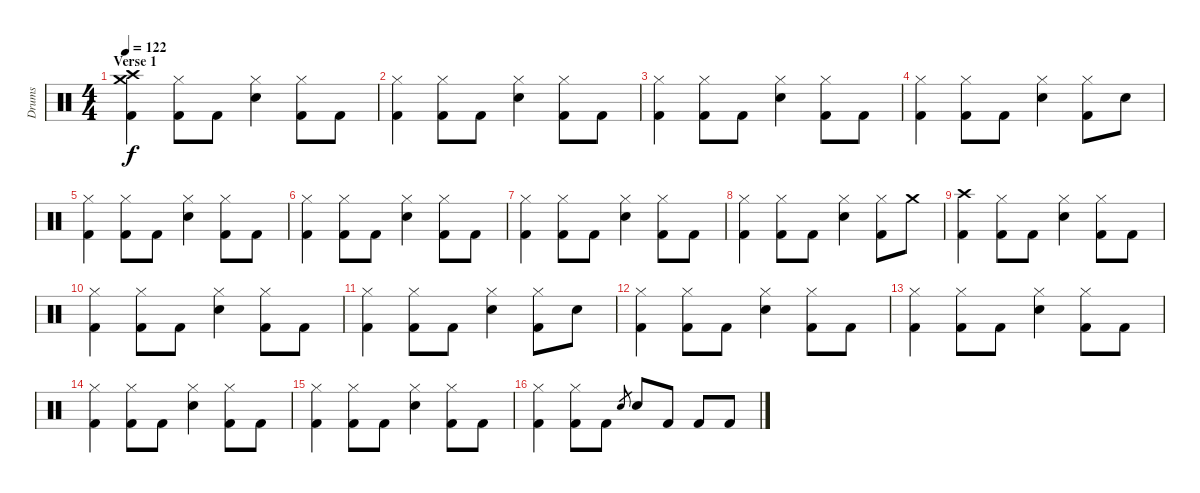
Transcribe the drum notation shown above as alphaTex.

\track ("Drums" "Drums") {instrument percussion}
\staff {score}
\articulation defaults
\ts (4 4)
\section ("" "Verse 1")
\tempo 122
\clef neutral
\ks c
("Crash high (hit)" "Crash medium (hit)" "Kick (hit) 2").4{dy f} ("Hi-Hat (closed)" "Kick (hit) 2").8 "Kick (hit) 2".8 ("Hi-Hat (closed)" "Snare (hit) 2").4 ("Hi-Hat (closed)" "Kick (hit) 2").8 "Kick (hit) 2".8 |
("Hi-Hat (closed)" "Kick (hit) 2").4 ("Hi-Hat (closed)" "Kick (hit) 2").8 "Kick (hit) 2".8 ("Hi-Hat (closed)" "Snare (hit) 2").4 ("Hi-Hat (closed)" "Kick (hit) 2").8 "Kick (hit) 2".8 |
("Hi-Hat (closed)" "Kick (hit) 2").4 ("Hi-Hat (closed)" "Kick (hit) 2").8 "Kick (hit) 2".8 ("Hi-Hat (closed)" "Snare (hit) 2").4 ("Hi-Hat (closed)" "Kick (hit) 2").8 "Kick (hit) 2".8 |
("Hi-Hat (closed)" "Kick (hit) 2").4 ("Hi-Hat (closed)" "Kick (hit) 2").8 "Kick (hit) 2".8 ("Hi-Hat (closed)" "Snare (hit) 2").4 ("Hi-Hat (closed)" "Kick (hit) 2").8 "Snare (hit) 2".8 |
("Hi-Hat (closed)" "Kick (hit) 2").4 ("Hi-Hat (closed)" "Kick (hit) 2").8 "Kick (hit) 2".8 ("Hi-Hat (closed)" "Snare (hit) 2").4 ("Hi-Hat (closed)" "Kick (hit) 2").8 "Kick (hit) 2".8 |
("Hi-Hat (closed)" "Kick (hit) 2").4 ("Hi-Hat (closed)" "Kick (hit) 2").8 "Kick (hit) 2".8 ("Hi-Hat (closed)" "Snare (hit) 2").4 ("Hi-Hat (closed)" "Kick (hit) 2").8 "Kick (hit) 2".8 |
("Hi-Hat (closed)" "Kick (hit) 2").4 ("Hi-Hat (closed)" "Kick (hit) 2").8 "Kick (hit) 2".8 ("Hi-Hat (closed)" "Snare (hit) 2").4 ("Hi-Hat (closed)" "Kick (hit) 2").8 "Kick (hit) 2".8 |
("Hi-Hat (closed)" "Kick (hit) 2").4 ("Hi-Hat (closed)" "Kick (hit) 2").8 "Kick (hit) 2".8 ("Hi-Hat (closed)" "Snare (hit) 2").4 ("Hi-Hat (closed)" "Kick (hit) 2").8 "Crash medium (hit)".8 |
("Crash high (hit)" "Kick (hit) 2").4 ("Hi-Hat (closed)" "Kick (hit) 2").8 "Kick (hit) 2".8 ("Hi-Hat (closed)" "Snare (hit) 2").4 ("Hi-Hat (closed)" "Kick (hit) 2").8 "Kick (hit) 2".8 |
("Hi-Hat (closed)" "Kick (hit) 2").4 ("Hi-Hat (closed)" "Kick (hit) 2").8 "Kick (hit) 2".8 ("Hi-Hat (closed)" "Snare (hit) 2").4 ("Hi-Hat (closed)" "Kick (hit) 2").8 "Kick (hit) 2".8 |
("Hi-Hat (closed)" "Kick (hit) 2").4 ("Hi-Hat (closed)" "Kick (hit) 2").8 "Kick (hit) 2".8 ("Hi-Hat (closed)" "Snare (hit) 2").4 ("Hi-Hat (closed)" "Kick (hit) 2").8 "Snare (hit) 2".8 |
("Hi-Hat (closed)" "Kick (hit) 2").4 ("Hi-Hat (closed)" "Kick (hit) 2").8 "Kick (hit) 2".8 ("Hi-Hat (closed)" "Snare (hit) 2").4 ("Hi-Hat (closed)" "Kick (hit) 2").8 "Kick (hit) 2".8 |
("Hi-Hat (closed)" "Kick (hit) 2").4 ("Hi-Hat (closed)" "Kick (hit) 2").8 "Kick (hit) 2".8 ("Hi-Hat (closed)" "Snare (hit) 2").4 ("Hi-Hat (closed)" "Kick (hit) 2").8 "Kick (hit) 2".8 |
("Hi-Hat (closed)" "Kick (hit) 2").4 ("Hi-Hat (closed)" "Kick (hit) 2").8 "Kick (hit) 2".8 ("Hi-Hat (closed)" "Snare (hit) 2").4 ("Hi-Hat (closed)" "Kick (hit) 2").8 "Kick (hit) 2".8 |
("Hi-Hat (closed)" "Kick (hit) 2").4 ("Hi-Hat (closed)" "Kick (hit) 2").8 "Kick (hit) 2".8 ("Hi-Hat (closed)" "Snare (hit) 2").4 ("Hi-Hat (closed)" "Kick (hit) 2").8 "Kick (hit) 2".8 |
("Hi-Hat (closed)" "Kick (hit) 2").4 ("Hi-Hat (closed)" "Kick (hit) 2").8 "Kick (hit) 2".8 "Snare (hit) 2".8{gr} "Snare (hit) 2".8 "Kick (hit) 2".8 "Kick (hit) 2".8 "Kick (hit) 2".8
